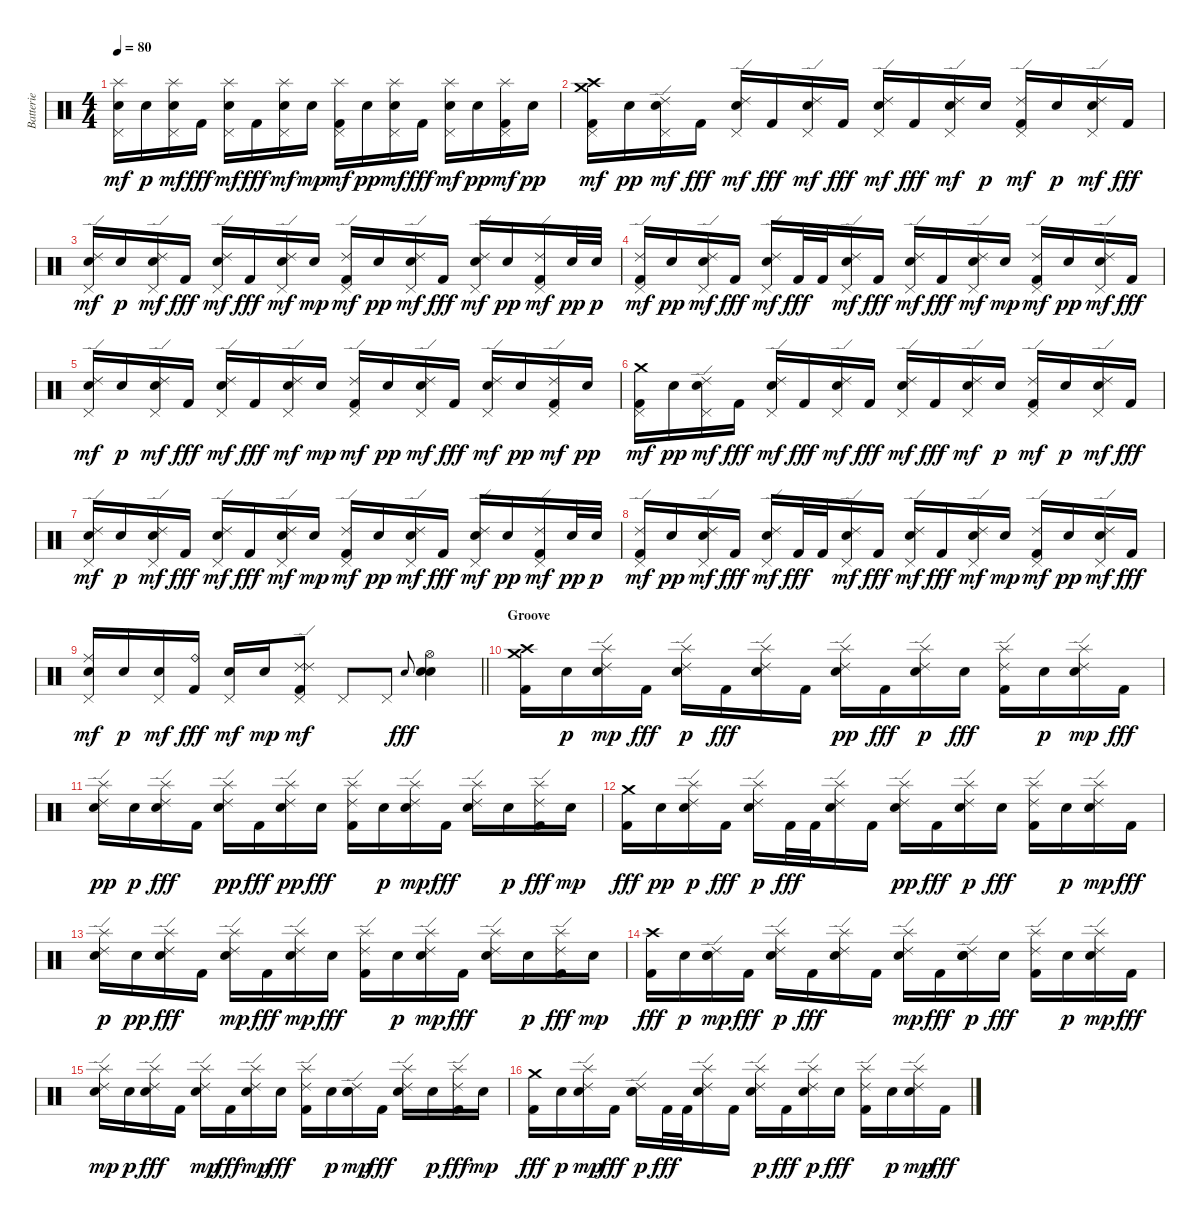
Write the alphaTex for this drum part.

\track ("Batterie" "Batterie") {instrument percussion}
\staff {score}
\articulation defaults
\ts (4 4)
\tempo 80
\clef neutral
\ks c
("Splash (hit)" "Electric Snare (hit)" "Pedal Hi-Hat (hit)").16{dy mf} "Electric Snare (hit)".16{dy p} ("Splash (hit)" "Electric Snare (hit)" "Pedal Hi-Hat (hit)").16{dy mf} "Kick (hit) 2".16{dy fff} ("Splash (hit)" "Electric Snare (hit)" "Pedal Hi-Hat (hit)").16{dy mf} "Kick (hit) 2".16{dy fff} ("Splash (hit)" "Electric Snare (hit)" "Pedal Hi-Hat (hit)").16{dy mf} "Electric Snare (hit)".16{dy mp} ("Splash (hit)" "Kick (hit) 2" "Pedal Hi-Hat (hit)").16{dy mf} "Electric Snare (hit)".16{dy pp} ("Splash (hit)" "Electric Snare (hit)" "Pedal Hi-Hat (hit)").16{dy mf} "Kick (hit) 2".16{dy fff} ("Splash (hit)" "Electric Snare (hit)" "Pedal Hi-Hat (hit)").16{dy mf} "Electric Snare (hit)".16{dy pp} ("Splash (hit)" "Kick (hit) 2" "Pedal Hi-Hat (hit)").16{dy mf} "Electric Snare (hit)".16{dy pp} |
("Crash high (hit)" "Crash medium (hit)" "Kick (hit) 2" "Pedal Hi-Hat (hit)").16{dy mf volume 13} "Electric Snare (hit)".16{dy pp} ("Ride (edge) 2" "Electric Snare (hit)" "Pedal Hi-Hat (hit)").16{dy mf} "Kick (hit) 2".16{dy fff} ("Ride (edge) 2" "Electric Snare (hit)" "Pedal Hi-Hat (hit)").16{dy mf} "Kick (hit) 2".16{dy fff} ("Ride (edge) 2" "Electric Snare (hit)" "Pedal Hi-Hat (hit)").16{dy mf} "Kick (hit) 2".16{dy fff} ("Ride (edge) 2" "Electric Snare (hit)" "Pedal Hi-Hat (hit)").16{dy mf} "Kick (hit) 2".16{dy fff} ("Ride (edge) 2" "Electric Snare (hit)" "Pedal Hi-Hat (hit)").16{dy mf} "Electric Snare (hit)".16{dy p} ("Ride (edge) 2" "Kick (hit) 2" "Pedal Hi-Hat (hit)").16{dy mf} "Electric Snare (hit)".16{dy p} ("Ride (edge) 2" "Electric Snare (hit)" "Pedal Hi-Hat (hit)").16{dy mf} "Kick (hit) 2".16{dy fff} |
("Ride (edge) 2" "Electric Snare (hit)" "Pedal Hi-Hat (hit)").16{dy mf} "Electric Snare (hit)".16{dy p} ("Ride (edge) 2" "Electric Snare (hit)" "Pedal Hi-Hat (hit)").16{dy mf} "Kick (hit) 2".16{dy fff} ("Ride (edge) 2" "Electric Snare (hit)" "Pedal Hi-Hat (hit)").16{dy mf} "Kick (hit) 2".16{dy fff} ("Ride (edge) 2" "Electric Snare (hit)" "Pedal Hi-Hat (hit)").16{dy mf} "Electric Snare (hit)".16{dy mp} ("Ride (edge) 2" "Kick (hit) 2" "Pedal Hi-Hat (hit)").16{dy mf} "Electric Snare (hit)".16{dy pp} ("Ride (edge) 2" "Electric Snare (hit)" "Pedal Hi-Hat (hit)").16{dy mf} "Kick (hit) 2".16{dy fff} ("Ride (edge) 2" "Electric Snare (hit)" "Pedal Hi-Hat (hit)").16{dy mf} "Electric Snare (hit)".16{dy pp} ("Ride (edge) 2" "Kick (hit) 2" "Pedal Hi-Hat (hit)").16{dy mf} "Electric Snare (hit)".32{dy pp} "Electric Snare (hit)".32{dy p} |
("Ride (edge) 2" "Kick (hit) 2" "Pedal Hi-Hat (hit)").16{dy mf} "Electric Snare (hit)".16{dy pp} ("Ride (edge) 2" "Electric Snare (hit)" "Pedal Hi-Hat (hit)").16{dy mf} "Kick (hit) 2".16{dy fff} ("Ride (edge) 2" "Electric Snare (hit)" "Pedal Hi-Hat (hit)").16{dy mf} "Kick (hit) 2".32{dy fff} "Kick (hit) 2".32 ("Ride (edge) 2" "Electric Snare (hit)" "Pedal Hi-Hat (hit)").16{dy mf} "Kick (hit) 2".16{dy fff} ("Ride (edge) 2" "Electric Snare (hit)" "Pedal Hi-Hat (hit)").16{dy mf} "Kick (hit) 2".16{dy fff} ("Ride (edge) 2" "Electric Snare (hit)" "Pedal Hi-Hat (hit)").16{dy mf} "Electric Snare (hit)".16{dy mp} ("Ride (edge) 2" "Kick (hit) 2" "Pedal Hi-Hat (hit)").16{dy mf} "Electric Snare (hit)".16{dy pp} ("Ride (edge) 2" "Electric Snare (hit)" "Pedal Hi-Hat (hit)").16{dy mf} "Kick (hit) 2".16{dy fff} |
("Ride (edge) 2" "Electric Snare (hit)" "Pedal Hi-Hat (hit)").16{dy mf} "Electric Snare (hit)".16{dy p} ("Ride (edge) 2" "Electric Snare (hit)" "Pedal Hi-Hat (hit)").16{dy mf} "Kick (hit) 2".16{dy fff} ("Ride (edge) 2" "Electric Snare (hit)" "Pedal Hi-Hat (hit)").16{dy mf} "Kick (hit) 2".16{dy fff} ("Ride (edge) 2" "Electric Snare (hit)" "Pedal Hi-Hat (hit)").16{dy mf} "Electric Snare (hit)".16{dy mp} ("Ride (edge) 2" "Kick (hit) 2" "Pedal Hi-Hat (hit)").16{dy mf} "Electric Snare (hit)".16{dy pp} ("Ride (edge) 2" "Electric Snare (hit)" "Pedal Hi-Hat (hit)").16{dy mf} "Kick (hit) 2".16{dy fff} ("Ride (edge) 2" "Electric Snare (hit)" "Pedal Hi-Hat (hit)").16{dy mf} "Electric Snare (hit)".16{dy pp} ("Ride (edge) 2" "Kick (hit) 2" "Pedal Hi-Hat (hit)").16{dy mf} "Electric Snare (hit)".16{dy pp} |
("Crash medium (hit)" "Kick (hit) 2" "Pedal Hi-Hat (hit)").16{dy mf} "Electric Snare (hit)".16{dy pp} ("Ride (edge) 2" "Electric Snare (hit)" "Pedal Hi-Hat (hit)").16{dy mf} "Kick (hit) 2".16{dy fff} ("Ride (edge) 2" "Electric Snare (hit)" "Pedal Hi-Hat (hit)").16{dy mf} "Kick (hit) 2".16{dy fff} ("Ride (edge) 2" "Electric Snare (hit)" "Pedal Hi-Hat (hit)").16{dy mf} "Kick (hit) 2".16{dy fff} ("Ride (edge) 2" "Electric Snare (hit)" "Pedal Hi-Hat (hit)").16{dy mf} "Kick (hit) 2".16{dy fff} ("Ride (edge) 2" "Electric Snare (hit)" "Pedal Hi-Hat (hit)").16{dy mf} "Electric Snare (hit)".16{dy p} ("Ride (edge) 2" "Kick (hit) 2" "Pedal Hi-Hat (hit)").16{dy mf} "Electric Snare (hit)".16{dy p} ("Ride (edge) 2" "Electric Snare (hit)" "Pedal Hi-Hat (hit)").16{dy mf} "Kick (hit) 2".16{dy fff} |
("Ride (edge) 2" "Electric Snare (hit)" "Pedal Hi-Hat (hit)").16{dy mf} "Electric Snare (hit)".16{dy p} ("Ride (edge) 2" "Electric Snare (hit)" "Pedal Hi-Hat (hit)").16{dy mf} "Kick (hit) 2".16{dy fff} ("Ride (edge) 2" "Electric Snare (hit)" "Pedal Hi-Hat (hit)").16{dy mf} "Kick (hit) 2".16{dy fff} ("Ride (edge) 2" "Electric Snare (hit)" "Pedal Hi-Hat (hit)").16{dy mf} "Electric Snare (hit)".16{dy mp} ("Ride (edge) 2" "Kick (hit) 2" "Pedal Hi-Hat (hit)").16{dy mf} "Electric Snare (hit)".16{dy pp} ("Ride (edge) 2" "Electric Snare (hit)" "Pedal Hi-Hat (hit)").16{dy mf} "Kick (hit) 2".16{dy fff} ("Ride (edge) 2" "Electric Snare (hit)" "Pedal Hi-Hat (hit)").16{dy mf} "Electric Snare (hit)".16{dy pp} ("Ride (edge) 2" "Kick (hit) 2" "Pedal Hi-Hat (hit)").16{dy mf} "Electric Snare (hit)".32{dy pp} "Electric Snare (hit)".32{dy p} |
("Ride (edge) 2" "Kick (hit) 2" "Pedal Hi-Hat (hit)").16{dy mf} "Electric Snare (hit)".16{dy pp} ("Ride (edge) 2" "Electric Snare (hit)" "Pedal Hi-Hat (hit)").16{dy mf} "Kick (hit) 2".16{dy fff} ("Ride (edge) 2" "Electric Snare (hit)" "Pedal Hi-Hat (hit)").16{dy mf} "Kick (hit) 2".32{dy fff} "Kick (hit) 2".32 ("Ride (edge) 2" "Electric Snare (hit)" "Pedal Hi-Hat (hit)").16{dy mf} "Kick (hit) 2".16{dy fff} ("Ride (edge) 2" "Electric Snare (hit)" "Pedal Hi-Hat (hit)").16{dy mf} "Kick (hit) 2".16{dy fff} ("Ride (edge) 2" "Electric Snare (hit)" "Pedal Hi-Hat (hit)").16{dy mf} "Electric Snare (hit)".16{dy mp} ("Ride (edge) 2" "Kick (hit) 2" "Pedal Hi-Hat (hit)").16{dy mf} "Electric Snare (hit)".16{dy pp} ("Ride (edge) 2" "Electric Snare (hit)" "Pedal Hi-Hat (hit)").16{dy mf} "Kick (hit) 2".16{dy fff} |
\barLineRight lightlight
("Ride (middle)" "Electric Snare (hit)" "Pedal Hi-Hat (hit)").16{dy mf} "Electric Snare (hit)".16{dy p} ("Electric Snare (hit)" "Pedal Hi-Hat (hit)").16{dy mf} ("Ride (bell)" "Kick (hit) 2").16{dy fff} ("Electric Snare (hit)" "Pedal Hi-Hat (hit)").16{dy mf} "Electric Snare (hit)".16{dy mp} ("Ride (edge) 2" "Ride (edge) 2" "Kick (hit) 2" "Pedal Hi-Hat (hit)").8{dy mf} "Pedal Hi-Hat (hit)".8 "Pedal Hi-Hat (hit)".8 "Electric Snare (hit)".8{gr onbeat dy fff} ("Hi-Hat (open)" "Electric Snare (hit)" "Electric Snare (hit)").4 |
\section ("" "Groove")
("Crash high (hit)" "Crash medium (hit)" "Kick (hit) 2").16 "Electric Snare (hit)".16{dy p} ("Ride (edge) 2" "Splash (hit)" "Electric Snare (hit)").16{dy mp} "Kick (hit) 2".16{dy fff} ("Ride (edge) 2" "Splash (hit)" "Electric Snare (hit)").16{dy p} "Kick (hit) 2".16{dy fff} ("Ride (edge) 2" "Splash (hit)" "Electric Snare (hit)").16 "Kick (hit) 2".16 ("Ride (edge) 2" "Splash (hit)" "Electric Snare (hit)").16{dy pp} "Kick (hit) 2".16{dy fff} ("Ride (edge) 2" "Splash (hit)" "Electric Snare (hit)").16{dy p} "Electric Snare (hit)".16{dy fff} ("Ride (edge) 2" "Splash (hit)" "Kick (hit) 2").16 "Electric Snare (hit)".16{dy p} ("Ride (edge) 2" "Splash (hit)" "Electric Snare (hit)").16{dy mp} "Kick (hit) 2".16{dy fff} |
("Ride (edge) 2" "Splash (hit)" "Electric Snare (hit)").16{dy pp} "Electric Snare (hit)".16{dy p} ("Ride (edge) 2" "Splash (hit)" "Electric Snare (hit)").16{dy fff} "Kick (hit) 2".16 ("Ride (edge) 2" "Splash (hit)" "Electric Snare (hit)").16{dy pp} "Kick (hit) 2".16{dy fff} ("Ride (edge) 2" "Splash (hit)" "Electric Snare (hit)").16{dy pp} "Electric Snare (hit)".16{dy fff} ("Ride (edge) 2" "Splash (hit)" "Kick (hit) 2").16 "Electric Snare (hit)".16{dy p} ("Ride (edge) 2" "Splash (hit)" "Electric Snare (hit)").16{dy mp} "Kick (hit) 2".16{dy fff} ("Ride (edge) 2" "Splash (hit)" "Electric Snare (hit)").16 "Electric Snare (hit)".16{dy p} ("Ride (edge) 2" "Splash (hit)" "Kick (hit) 2").16{dy fff} "Electric Snare (hit)".16{dy mp} |
("Crash medium (hit)" "Kick (hit) 2").16{dy fff} "Electric Snare (hit)".16{dy pp} ("Ride (edge) 2" "Splash (hit)" "Electric Snare (hit)").16{dy p} "Kick (hit) 2".16{dy fff} ("Ride (edge) 2" "Splash (hit)" "Electric Snare (hit)").16{dy p} "Kick (hit) 2".32{dy fff} "Kick (hit) 2".32 ("Ride (edge) 2" "Splash (hit)" "Electric Snare (hit)").16 "Kick (hit) 2".16 ("Ride (edge) 2" "Splash (hit)" "Electric Snare (hit)").16{dy pp} "Kick (hit) 2".16{dy fff} ("Ride (edge) 2" "Splash (hit)" "Electric Snare (hit)").16{dy p} "Electric Snare (hit)".16{dy fff} ("Ride (edge) 2" "Splash (hit)" "Kick (hit) 2").16 "Electric Snare (hit)".16{dy p} ("Ride (edge) 2" "Splash (hit)" "Electric Snare (hit)").16{dy mp} "Kick (hit) 2".16{dy fff} |
("Ride (edge) 2" "Splash (hit)" "Electric Snare (hit)").16{dy p} "Electric Snare (hit)".16{dy pp} ("Ride (edge) 2" "Splash (hit)" "Electric Snare (hit)").16{dy fff} "Kick (hit) 2".16 ("Ride (edge) 2" "Splash (hit)" "Electric Snare (hit)").16{dy mp} "Kick (hit) 2".16{dy fff} ("Ride (edge) 2" "Splash (hit)" "Electric Snare (hit)").16{dy mp} "Electric Snare (hit)".16{dy fff} ("Ride (edge) 2" "Splash (hit)" "Kick (hit) 2").16 "Electric Snare (hit)".16{dy p} ("Ride (edge) 2" "Splash (hit)" "Electric Snare (hit)").16{dy mp} "Kick (hit) 2".16{dy fff} ("Ride (edge) 2" "Splash (hit)" "Electric Snare (hit)").16 "Electric Snare (hit)".16{dy p} ("Ride (edge) 2" "Splash (hit)" "Kick (hit) 2").16{dy fff} "Electric Snare (hit)".16{dy mp} |
("Crash high (hit)" "Kick (hit) 2").16{dy fff} "Electric Snare (hit)".16{dy p} ("Ride (edge) 2" "Snare (hit)" "Electric Snare (hit)").16{dy mp} "Kick (hit) 2".16{dy fff} ("Ride (edge) 2" "Splash (hit)" "Electric Snare (hit)").16{dy p} "Kick (hit) 2".16{dy fff} ("Ride (edge) 2" "Splash (hit)" "Electric Snare (hit)").16 "Kick (hit) 2".16 ("Ride (edge) 2" "Splash (hit)" "Electric Snare (hit)").16{dy mp} "Kick (hit) 2".16{dy fff} ("Ride (edge) 2" "Snare (hit)" "Electric Snare (hit)").16{dy p} "Electric Snare (hit)".16{dy fff} ("Ride (edge) 2" "Splash (hit)" "Kick (hit) 2").16 "Electric Snare (hit)".16{dy p} ("Ride (edge) 2" "Splash (hit)" "Electric Snare (hit)").16{dy mp} "Kick (hit) 2".16{dy fff} |
("Ride (edge) 2" "Splash (hit)" "Electric Snare (hit)").16{dy mp} "Electric Snare (hit)".16{dy p} ("Ride (edge) 2" "Splash (hit)" "Electric Snare (hit)").16{dy fff} "Kick (hit) 2".16 ("Ride (edge) 2" "Splash (hit)" "Electric Snare (hit)").16{dy mp} "Kick (hit) 2".16{dy fff} ("Ride (edge) 2" "Splash (hit)" "Electric Snare (hit)").16{dy mp} "Electric Snare (hit)".16{dy fff} ("Ride (edge) 2" "Splash (hit)" "Kick (hit) 2").16 "Electric Snare (hit)".16{dy p} ("Ride (edge) 2" "Snare (hit)" "Electric Snare (hit)").16{dy mp} "Kick (hit) 2".16{dy fff} ("Ride (edge) 2" "Splash (hit)" "Electric Snare (hit)").16 "Electric Snare (hit)".16{dy p} ("Ride (edge) 2" "Splash (hit)" "Kick (hit) 2").16{dy fff} "Electric Snare (hit)".16{dy mp} |
("Crash medium (hit)" "Kick (hit) 2").16{dy fff} "Electric Snare (hit)".16{dy p} ("Ride (edge) 2" "Splash (hit)" "Electric Snare (hit)").16{dy mp} "Kick (hit) 2".16{dy fff} ("Ride (edge) 2" "Snare (hit)" "Electric Snare (hit)").16{dy p} "Kick (hit) 2".32{dy fff} "Kick (hit) 2".32 ("Ride (edge) 2" "Splash (hit)" "Electric Snare (hit)").16 "Kick (hit) 2".16 ("Ride (edge) 2" "Splash (hit)" "Electric Snare (hit)").16{dy p} "Kick (hit) 2".16{dy fff} ("Ride (edge) 2" "Splash (hit)" "Electric Snare (hit)").16{dy p} "Electric Snare (hit)".16{dy fff} ("Ride (edge) 2" "Splash (hit)" "Kick (hit) 2").16 "Electric Snare (hit)".16{dy p} ("Ride (edge) 2" "Splash (hit)" "Electric Snare (hit)").16{dy mp} "Kick (hit) 2".16{dy fff}
